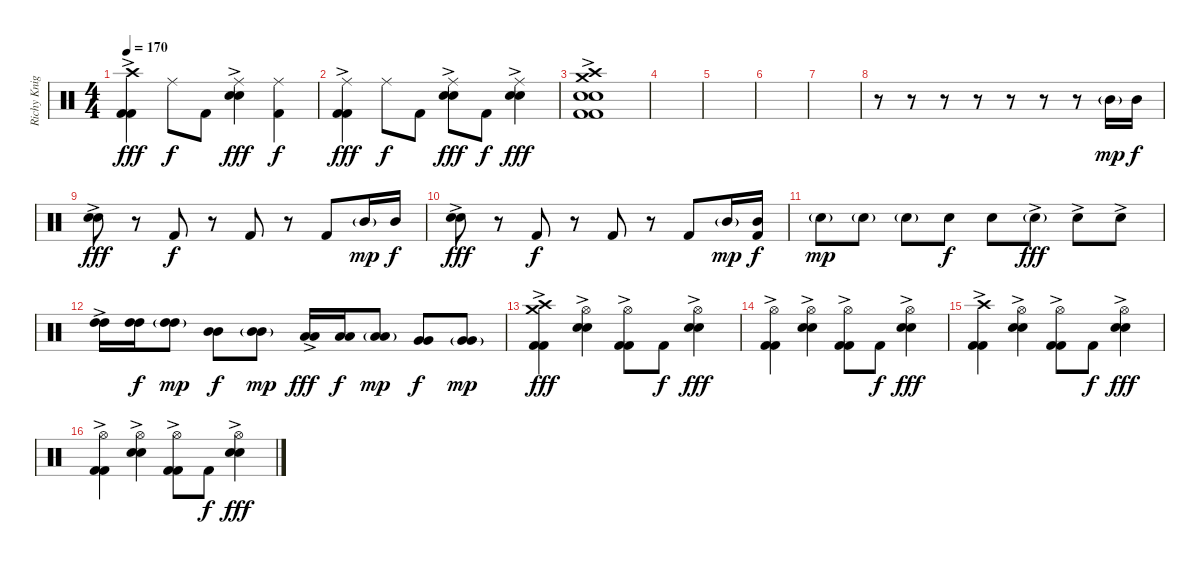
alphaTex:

\track ("Richy Knight (Drums)" "Richy Knig") {instrument percussion}
\staff {score}
\articulation defaults
\ts (4 4)
\tempo 170
\clef neutral
\ks c
("Crash high (hit)"{ac} "Kick (hit) 2"{ac} "Kick (hit) 2"{ac}).4{dy fff} "Ride (middle)".8{dy f} "Kick (hit) 2".8 ("Ride (middle)"{ac} "Electric Snare (hit)"{ac} "Electric Snare (hit)"{ac}).4{dy fff} ("Ride (middle)" "Kick (hit) 2").4{dy f} |
("Ride (middle)"{ac} "Kick (hit) 2"{ac} "Kick (hit) 2"{ac}).4{dy fff} "Ride (middle)".8{dy f} "Kick (hit) 2".8 ("Ride (middle)"{ac} "Electric Snare (hit)"{ac} "Electric Snare (hit)"{ac}).8{dy fff} "Kick (hit) 2".8{dy f} ("Ride (middle)"{ac} "Electric Snare (hit)"{ac} "Electric Snare (hit)"{ac}).4{dy fff} |
("Crash high (hit)"{ac} "Crash medium (hit)"{ac} "Electric Snare (hit)"{ac} "Electric Snare (hit)"{ac} "Kick (hit) 2"{ac} "Kick (hit) 2"{ac}).1 |
|
|
|
|
r.8 r.8 r.8 r.8 r.8 r.8 r.8 "Mid Tom (hit)"{g}.16{dy mp} "Mid Tom (hit)".16{dy f} |
("Electric Snare (hit)"{ac} "Electric Snare (hit)"{ac}).8{dy fff} r.8 "Kick (hit) 2".8{dy f} r.8 "Kick (hit) 2".8 r.8 "Kick (hit) 2".8 "Mid Tom (hit)"{g}.16{dy mp} "Mid Tom (hit)".16{dy f} |
("Electric Snare (hit)"{ac} "Electric Snare (hit)"{ac}).8{dy fff} r.8 "Kick (hit) 2".8{dy f} r.8 "Kick (hit) 2".8 r.8 "Kick (hit) 2".8 "Mid Tom (hit)"{g}.16{dy mp} ("Mid Tom (hit)" "Kick (hit) 2").16{dy f} |
"Electric Snare (hit)"{g}.8{dy mp} "Electric Snare (hit)"{g}.8 "Electric Snare (hit)"{g}.8 "Electric Snare (hit)".8{dy f} "Electric Snare (hit)".8 "Electric Snare (hit)"{g ac}.8{dy fff} "Electric Snare (hit)"{ac}.8 "Electric Snare (hit)"{ac}.8 |
("High Tom (hit)"{ac} "High Tom (hit)"{ac}).16 ("High Tom (hit)" "High Tom (hit)").16{dy f} ("High Tom (hit)"{g} "High Tom (hit)"{g}).8{dy mp} ("Mid Tom (hit)" "Mid Tom (hit)").8{dy f} ("Mid Tom (hit)"{g} "Mid Tom (hit)"{g}).8{dy mp} ("Low Tom (hit)"{ac} "Low Tom (hit)"{ac}).16{dy fff} ("Low Tom (hit)" "Low Tom (hit)").16{dy f} ("Low Tom (hit)"{g} "Low Tom (hit)"{g}).8{dy mp} ("Very Low Tom (hit)" "Very Low Tom (hit)").8{dy f} ("Very Low Tom (hit)"{g} "Very Low Tom (hit)"{g}).8{dy mp} |
("Crash high (hit)"{ac} "Crash medium (hit)"{ac} "Kick (hit) 2"{ac} "Kick (hit) 2"{ac}).4{dy fff} ("Hi-Hat (open)"{ac} "Electric Snare (hit)"{ac} "Electric Snare (hit)"{ac}).4 ("Hi-Hat (open)"{ac} "Kick (hit) 2"{ac} "Kick (hit) 2"{ac}).8 "Kick (hit) 2".8{dy f} ("Hi-Hat (open)"{ac} "Electric Snare (hit)"{ac} "Electric Snare (hit)"{ac}).4{dy fff} |
("Hi-Hat (open)"{ac} "Kick (hit) 2"{ac} "Kick (hit) 2"{ac}).4 ("Hi-Hat (open)"{ac} "Electric Snare (hit)"{ac} "Electric Snare (hit)"{ac}).4 ("Hi-Hat (open)"{ac} "Kick (hit) 2"{ac} "Kick (hit) 2"{ac}).8 "Kick (hit) 2".8{dy f} ("Hi-Hat (open)"{ac} "Electric Snare (hit)"{ac} "Electric Snare (hit)"{ac}).4{dy fff} |
("Crash high (hit)"{ac} "Kick (hit) 2"{ac} "Kick (hit) 2"{ac}).4 ("Hi-Hat (open)"{ac} "Electric Snare (hit)"{ac} "Electric Snare (hit)"{ac}).4 ("Hi-Hat (open)"{ac} "Kick (hit) 2"{ac} "Kick (hit) 2"{ac}).8 "Kick (hit) 2".8{dy f} ("Hi-Hat (open)"{ac} "Electric Snare (hit)"{ac} "Electric Snare (hit)"{ac}).4{dy fff} |
("Hi-Hat (open)"{ac} "Kick (hit) 2"{ac} "Kick (hit) 2"{ac}).4 ("Hi-Hat (open)"{ac} "Electric Snare (hit)"{ac} "Electric Snare (hit)"{ac}).4 ("Hi-Hat (open)"{ac} "Kick (hit) 2"{ac} "Kick (hit) 2"{ac}).8 "Kick (hit) 2".8{dy f} ("Hi-Hat (open)"{ac} "Electric Snare (hit)"{ac} "Electric Snare (hit)"{ac}).4{dy fff}
